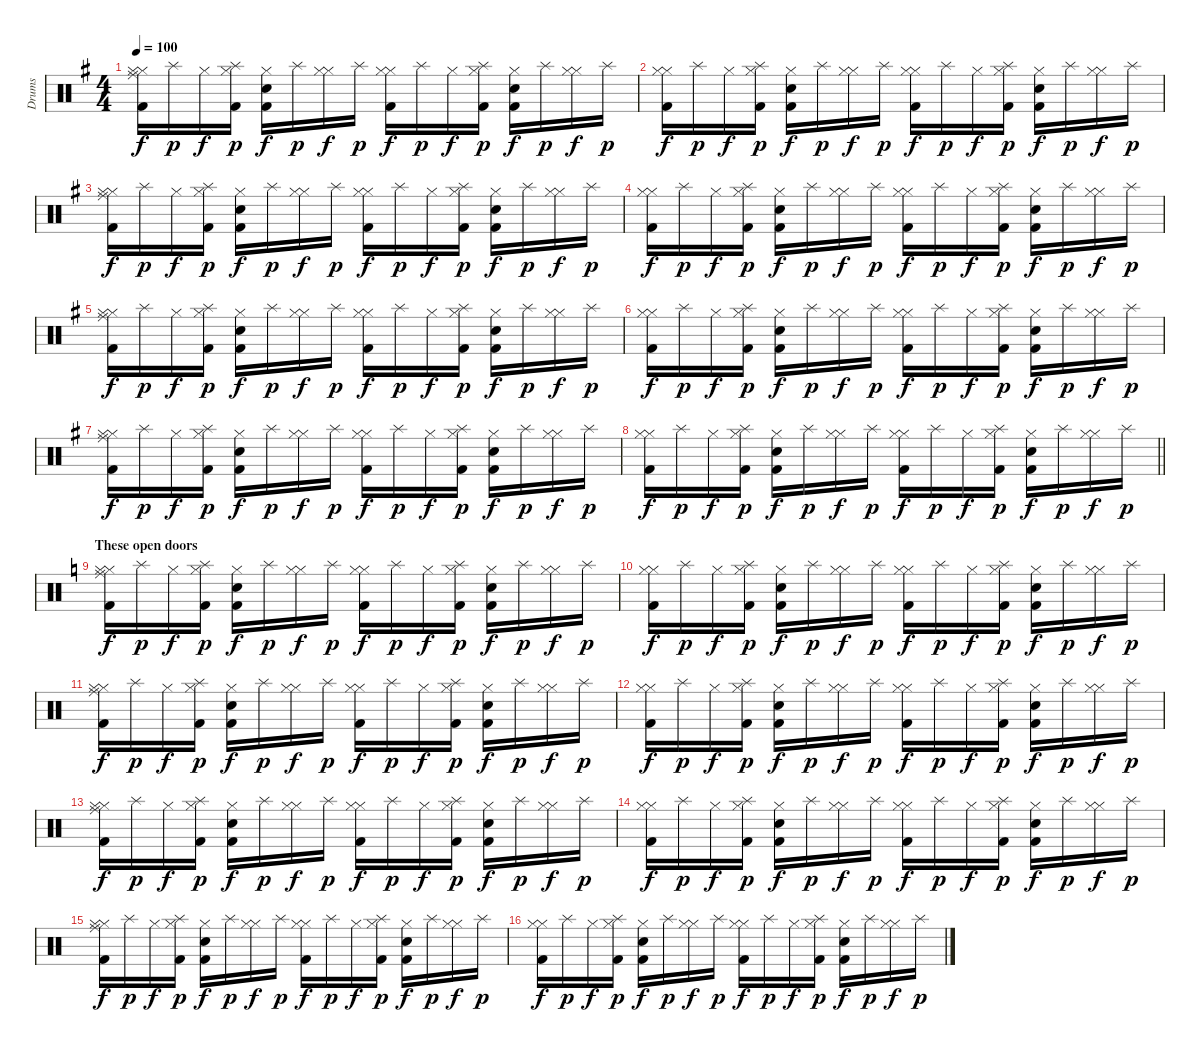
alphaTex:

\track ("Drums" "Drums") {instrument percussion}
\staff {score}
\articulation defaults
\ts (4 4)
\tempo 100
\clef neutral
\ks g
("Ride (middle)" "Hi-Hat (closed)" "Hi-Hat (closed)" "Kick (hit) 2").16{dy f} "Splash (hit)".16{dy p} "Hi-Hat (closed)".16{dy f} ("Splash (hit)" "Hi-Hat (closed)" "Kick (hit) 2").16{dy p} ("Electric Snare (hit)" "Hi-Hat (closed)" "Kick (hit) 2").16{dy f} "Splash (hit)".16{dy p} ("Hi-Hat (closed)" "Hi-Hat (closed)").16{dy f} "Splash (hit)".16{dy p} ("Hi-Hat (closed)" "Hi-Hat (closed)" "Kick (hit) 2").16{dy f} "Splash (hit)".16{dy p} "Hi-Hat (closed)".16{dy f} ("Splash (hit)" "Hi-Hat (closed)" "Kick (hit) 2").16{dy p} ("Electric Snare (hit)" "Hi-Hat (closed)" "Kick (hit) 2").16{dy f} "Splash (hit)".16{dy p} ("Hi-Hat (closed)" "Hi-Hat (closed)").16{dy f} "Splash (hit)".16{dy p} |
("Hi-Hat (closed)" "Hi-Hat (closed)" "Kick (hit) 2").16{dy f} "Splash (hit)".16{dy p} "Hi-Hat (closed)".16{dy f} ("Splash (hit)" "Hi-Hat (closed)" "Kick (hit) 2").16{dy p} ("Electric Snare (hit)" "Hi-Hat (closed)" "Kick (hit) 2").16{dy f} "Splash (hit)".16{dy p} ("Hi-Hat (closed)" "Hi-Hat (closed)").16{dy f} "Splash (hit)".16{dy p} ("Hi-Hat (closed)" "Hi-Hat (closed)" "Kick (hit) 2").16{dy f} "Splash (hit)".16{dy p} "Hi-Hat (closed)".16{dy f} ("Splash (hit)" "Hi-Hat (closed)" "Kick (hit) 2").16{dy p} ("Electric Snare (hit)" "Hi-Hat (closed)" "Kick (hit) 2").16{dy f} "Splash (hit)".16{dy p} ("Hi-Hat (closed)" "Hi-Hat (closed)").16{dy f} "Splash (hit)".16{dy p} |
("Ride (middle)" "Hi-Hat (closed)" "Hi-Hat (closed)" "Kick (hit) 2").16{dy f} "Splash (hit)".16{dy p} "Hi-Hat (closed)".16{dy f} ("Splash (hit)" "Hi-Hat (closed)" "Kick (hit) 2").16{dy p} ("Electric Snare (hit)" "Hi-Hat (closed)" "Kick (hit) 2").16{dy f} "Splash (hit)".16{dy p} ("Hi-Hat (closed)" "Hi-Hat (closed)").16{dy f} "Splash (hit)".16{dy p} ("Hi-Hat (closed)" "Hi-Hat (closed)" "Kick (hit) 2").16{dy f} "Splash (hit)".16{dy p} "Hi-Hat (closed)".16{dy f} ("Splash (hit)" "Hi-Hat (closed)" "Kick (hit) 2").16{dy p} ("Electric Snare (hit)" "Hi-Hat (closed)" "Kick (hit) 2").16{dy f} "Splash (hit)".16{dy p} ("Hi-Hat (closed)" "Hi-Hat (closed)").16{dy f} "Splash (hit)".16{dy p} |
("Hi-Hat (closed)" "Hi-Hat (closed)" "Kick (hit) 2").16{dy f} "Splash (hit)".16{dy p} "Hi-Hat (closed)".16{dy f} ("Splash (hit)" "Hi-Hat (closed)" "Kick (hit) 2").16{dy p} ("Electric Snare (hit)" "Hi-Hat (closed)" "Kick (hit) 2").16{dy f} "Splash (hit)".16{dy p} ("Hi-Hat (closed)" "Hi-Hat (closed)").16{dy f} "Splash (hit)".16{dy p} ("Hi-Hat (closed)" "Hi-Hat (closed)" "Kick (hit) 2").16{dy f} "Splash (hit)".16{dy p} "Hi-Hat (closed)".16{dy f} ("Splash (hit)" "Hi-Hat (closed)" "Kick (hit) 2").16{dy p} ("Electric Snare (hit)" "Hi-Hat (closed)" "Kick (hit) 2").16{dy f} "Splash (hit)".16{dy p} ("Hi-Hat (closed)" "Hi-Hat (closed)").16{dy f} "Splash (hit)".16{dy p} |
("Ride (middle)" "Hi-Hat (closed)" "Hi-Hat (closed)" "Kick (hit) 2").16{dy f} "Splash (hit)".16{dy p} "Hi-Hat (closed)".16{dy f} ("Splash (hit)" "Hi-Hat (closed)" "Kick (hit) 2").16{dy p} ("Electric Snare (hit)" "Hi-Hat (closed)" "Kick (hit) 2").16{dy f} "Splash (hit)".16{dy p} ("Hi-Hat (closed)" "Hi-Hat (closed)").16{dy f} "Splash (hit)".16{dy p} ("Hi-Hat (closed)" "Hi-Hat (closed)" "Kick (hit) 2").16{dy f} "Splash (hit)".16{dy p} "Hi-Hat (closed)".16{dy f} ("Splash (hit)" "Hi-Hat (closed)" "Kick (hit) 2").16{dy p} ("Electric Snare (hit)" "Hi-Hat (closed)" "Kick (hit) 2").16{dy f} "Splash (hit)".16{dy p} ("Hi-Hat (closed)" "Hi-Hat (closed)").16{dy f} "Splash (hit)".16{dy p} |
("Hi-Hat (closed)" "Hi-Hat (closed)" "Kick (hit) 2").16{dy f} "Splash (hit)".16{dy p} "Hi-Hat (closed)".16{dy f} ("Splash (hit)" "Hi-Hat (closed)" "Kick (hit) 2").16{dy p} ("Electric Snare (hit)" "Hi-Hat (closed)" "Kick (hit) 2").16{dy f} "Splash (hit)".16{dy p} ("Hi-Hat (closed)" "Hi-Hat (closed)").16{dy f} "Splash (hit)".16{dy p} ("Hi-Hat (closed)" "Hi-Hat (closed)" "Kick (hit) 2").16{dy f} "Splash (hit)".16{dy p} "Hi-Hat (closed)".16{dy f} ("Splash (hit)" "Hi-Hat (closed)" "Kick (hit) 2").16{dy p} ("Electric Snare (hit)" "Hi-Hat (closed)" "Kick (hit) 2").16{dy f} "Splash (hit)".16{dy p} ("Hi-Hat (closed)" "Hi-Hat (closed)").16{dy f} "Splash (hit)".16{dy p} |
("Ride (middle)" "Hi-Hat (closed)" "Hi-Hat (closed)" "Kick (hit) 2").16{dy f} "Splash (hit)".16{dy p} "Hi-Hat (closed)".16{dy f} ("Splash (hit)" "Hi-Hat (closed)" "Kick (hit) 2").16{dy p} ("Electric Snare (hit)" "Hi-Hat (closed)" "Kick (hit) 2").16{dy f} "Splash (hit)".16{dy p} ("Hi-Hat (closed)" "Hi-Hat (closed)").16{dy f} "Splash (hit)".16{dy p} ("Hi-Hat (closed)" "Hi-Hat (closed)" "Kick (hit) 2").16{dy f} "Splash (hit)".16{dy p} "Hi-Hat (closed)".16{dy f} ("Splash (hit)" "Hi-Hat (closed)" "Kick (hit) 2").16{dy p} ("Electric Snare (hit)" "Hi-Hat (closed)" "Kick (hit) 2").16{dy f} "Splash (hit)".16{dy p} ("Hi-Hat (closed)" "Hi-Hat (closed)").16{dy f} "Splash (hit)".16{dy p} |
\barLineRight lightlight
("Hi-Hat (closed)" "Hi-Hat (closed)" "Kick (hit) 2").16{dy f} "Splash (hit)".16{dy p} "Hi-Hat (closed)".16{dy f} ("Splash (hit)" "Hi-Hat (closed)" "Kick (hit) 2").16{dy p} ("Electric Snare (hit)" "Hi-Hat (closed)" "Kick (hit) 2").16{dy f} "Splash (hit)".16{dy p} ("Hi-Hat (closed)" "Hi-Hat (closed)").16{dy f} "Splash (hit)".16{dy p} ("Hi-Hat (closed)" "Hi-Hat (closed)" "Kick (hit) 2").16{dy f} "Splash (hit)".16{dy p} "Hi-Hat (closed)".16{dy f} ("Splash (hit)" "Hi-Hat (closed)" "Kick (hit) 2").16{dy p} ("Electric Snare (hit)" "Hi-Hat (closed)" "Kick (hit) 2").16{dy f} "Splash (hit)".16{dy p} ("Hi-Hat (closed)" "Hi-Hat (closed)").16{dy f} "Splash (hit)".16{dy p} |
\section ("" "These open doors")
\ks c
("Ride (middle)" "Hi-Hat (closed)" "Hi-Hat (closed)" "Kick (hit) 2").16{dy f} "Splash (hit)".16{dy p} "Hi-Hat (closed)".16{dy f} ("Splash (hit)" "Hi-Hat (closed)" "Kick (hit) 2").16{dy p} ("Electric Snare (hit)" "Hi-Hat (closed)" "Kick (hit) 2").16{dy f} "Splash (hit)".16{dy p} ("Hi-Hat (closed)" "Hi-Hat (closed)").16{dy f} "Splash (hit)".16{dy p} ("Hi-Hat (closed)" "Hi-Hat (closed)" "Kick (hit) 2").16{dy f} "Splash (hit)".16{dy p} "Hi-Hat (closed)".16{dy f} ("Splash (hit)" "Hi-Hat (closed)" "Kick (hit) 2").16{dy p} ("Electric Snare (hit)" "Hi-Hat (closed)" "Kick (hit) 2").16{dy f} "Splash (hit)".16{dy p} ("Hi-Hat (closed)" "Hi-Hat (closed)").16{dy f} "Splash (hit)".16{dy p} |
("Hi-Hat (closed)" "Hi-Hat (closed)" "Kick (hit) 2").16{dy f} "Splash (hit)".16{dy p} "Hi-Hat (closed)".16{dy f} ("Splash (hit)" "Hi-Hat (closed)" "Kick (hit) 2").16{dy p} ("Electric Snare (hit)" "Hi-Hat (closed)" "Kick (hit) 2").16{dy f} "Splash (hit)".16{dy p} ("Hi-Hat (closed)" "Hi-Hat (closed)").16{dy f} "Splash (hit)".16{dy p} ("Hi-Hat (closed)" "Hi-Hat (closed)" "Kick (hit) 2").16{dy f} "Splash (hit)".16{dy p} "Hi-Hat (closed)".16{dy f} ("Splash (hit)" "Hi-Hat (closed)" "Kick (hit) 2").16{dy p} ("Electric Snare (hit)" "Hi-Hat (closed)" "Kick (hit) 2").16{dy f} "Splash (hit)".16{dy p} ("Hi-Hat (closed)" "Hi-Hat (closed)").16{dy f} "Splash (hit)".16{dy p} |
("Ride (middle)" "Hi-Hat (closed)" "Hi-Hat (closed)" "Kick (hit) 2").16{dy f} "Splash (hit)".16{dy p} "Hi-Hat (closed)".16{dy f} ("Splash (hit)" "Hi-Hat (closed)" "Kick (hit) 2").16{dy p} ("Electric Snare (hit)" "Hi-Hat (closed)" "Kick (hit) 2").16{dy f} "Splash (hit)".16{dy p} ("Hi-Hat (closed)" "Hi-Hat (closed)").16{dy f} "Splash (hit)".16{dy p} ("Hi-Hat (closed)" "Hi-Hat (closed)" "Kick (hit) 2").16{dy f} "Splash (hit)".16{dy p} "Hi-Hat (closed)".16{dy f} ("Splash (hit)" "Hi-Hat (closed)" "Kick (hit) 2").16{dy p} ("Electric Snare (hit)" "Hi-Hat (closed)" "Kick (hit) 2").16{dy f} "Splash (hit)".16{dy p} ("Hi-Hat (closed)" "Hi-Hat (closed)").16{dy f} "Splash (hit)".16{dy p} |
("Hi-Hat (closed)" "Hi-Hat (closed)" "Kick (hit) 2").16{dy f} "Splash (hit)".16{dy p} "Hi-Hat (closed)".16{dy f} ("Splash (hit)" "Hi-Hat (closed)" "Kick (hit) 2").16{dy p} ("Electric Snare (hit)" "Hi-Hat (closed)" "Kick (hit) 2").16{dy f} "Splash (hit)".16{dy p} ("Hi-Hat (closed)" "Hi-Hat (closed)").16{dy f} "Splash (hit)".16{dy p} ("Hi-Hat (closed)" "Hi-Hat (closed)" "Kick (hit) 2").16{dy f} "Splash (hit)".16{dy p} "Hi-Hat (closed)".16{dy f} ("Splash (hit)" "Hi-Hat (closed)" "Kick (hit) 2").16{dy p} ("Electric Snare (hit)" "Hi-Hat (closed)" "Kick (hit) 2").16{dy f} "Splash (hit)".16{dy p} ("Hi-Hat (closed)" "Hi-Hat (closed)").16{dy f} "Splash (hit)".16{dy p} |
("Ride (middle)" "Hi-Hat (closed)" "Hi-Hat (closed)" "Kick (hit) 2").16{dy f} "Splash (hit)".16{dy p} "Hi-Hat (closed)".16{dy f} ("Splash (hit)" "Hi-Hat (closed)" "Kick (hit) 2").16{dy p} ("Electric Snare (hit)" "Hi-Hat (closed)" "Kick (hit) 2").16{dy f} "Splash (hit)".16{dy p} ("Hi-Hat (closed)" "Hi-Hat (closed)").16{dy f} "Splash (hit)".16{dy p} ("Hi-Hat (closed)" "Hi-Hat (closed)" "Kick (hit) 2").16{dy f} "Splash (hit)".16{dy p} "Hi-Hat (closed)".16{dy f} ("Splash (hit)" "Hi-Hat (closed)" "Kick (hit) 2").16{dy p} ("Electric Snare (hit)" "Hi-Hat (closed)" "Kick (hit) 2").16{dy f} "Splash (hit)".16{dy p} ("Hi-Hat (closed)" "Hi-Hat (closed)").16{dy f} "Splash (hit)".16{dy p} |
("Hi-Hat (closed)" "Hi-Hat (closed)" "Kick (hit) 2").16{dy f} "Splash (hit)".16{dy p} "Hi-Hat (closed)".16{dy f} ("Splash (hit)" "Hi-Hat (closed)" "Kick (hit) 2").16{dy p} ("Electric Snare (hit)" "Hi-Hat (closed)" "Kick (hit) 2").16{dy f} "Splash (hit)".16{dy p} ("Hi-Hat (closed)" "Hi-Hat (closed)").16{dy f} "Splash (hit)".16{dy p} ("Hi-Hat (closed)" "Hi-Hat (closed)" "Kick (hit) 2").16{dy f} "Splash (hit)".16{dy p} "Hi-Hat (closed)".16{dy f} ("Splash (hit)" "Hi-Hat (closed)" "Kick (hit) 2").16{dy p} ("Electric Snare (hit)" "Hi-Hat (closed)" "Kick (hit) 2").16{dy f} "Splash (hit)".16{dy p} ("Hi-Hat (closed)" "Hi-Hat (closed)").16{dy f} "Splash (hit)".16{dy p} |
("Ride (middle)" "Hi-Hat (closed)" "Hi-Hat (closed)" "Kick (hit) 2").16{dy f} "Splash (hit)".16{dy p} "Hi-Hat (closed)".16{dy f} ("Splash (hit)" "Hi-Hat (closed)" "Kick (hit) 2").16{dy p} ("Electric Snare (hit)" "Hi-Hat (closed)" "Kick (hit) 2").16{dy f} "Splash (hit)".16{dy p} ("Hi-Hat (closed)" "Hi-Hat (closed)").16{dy f} "Splash (hit)".16{dy p} ("Hi-Hat (closed)" "Hi-Hat (closed)" "Kick (hit) 2").16{dy f} "Splash (hit)".16{dy p} "Hi-Hat (closed)".16{dy f} ("Splash (hit)" "Hi-Hat (closed)" "Kick (hit) 2").16{dy p} ("Electric Snare (hit)" "Hi-Hat (closed)" "Kick (hit) 2").16{dy f} "Splash (hit)".16{dy p} ("Hi-Hat (closed)" "Hi-Hat (closed)").16{dy f} "Splash (hit)".16{dy p} |
("Hi-Hat (closed)" "Hi-Hat (closed)" "Kick (hit) 2").16{dy f} "Splash (hit)".16{dy p} "Hi-Hat (closed)".16{dy f} ("Splash (hit)" "Hi-Hat (closed)" "Kick (hit) 2").16{dy p} ("Electric Snare (hit)" "Hi-Hat (closed)" "Kick (hit) 2").16{dy f} "Splash (hit)".16{dy p} ("Hi-Hat (closed)" "Hi-Hat (closed)").16{dy f} "Splash (hit)".16{dy p} ("Hi-Hat (closed)" "Hi-Hat (closed)" "Kick (hit) 2").16{dy f} "Splash (hit)".16{dy p} "Hi-Hat (closed)".16{dy f} ("Splash (hit)" "Hi-Hat (closed)" "Kick (hit) 2").16{dy p} ("Electric Snare (hit)" "Hi-Hat (closed)" "Kick (hit) 2").16{dy f} "Splash (hit)".16{dy p} ("Hi-Hat (closed)" "Hi-Hat (closed)").16{dy f} "Splash (hit)".16{dy p}
